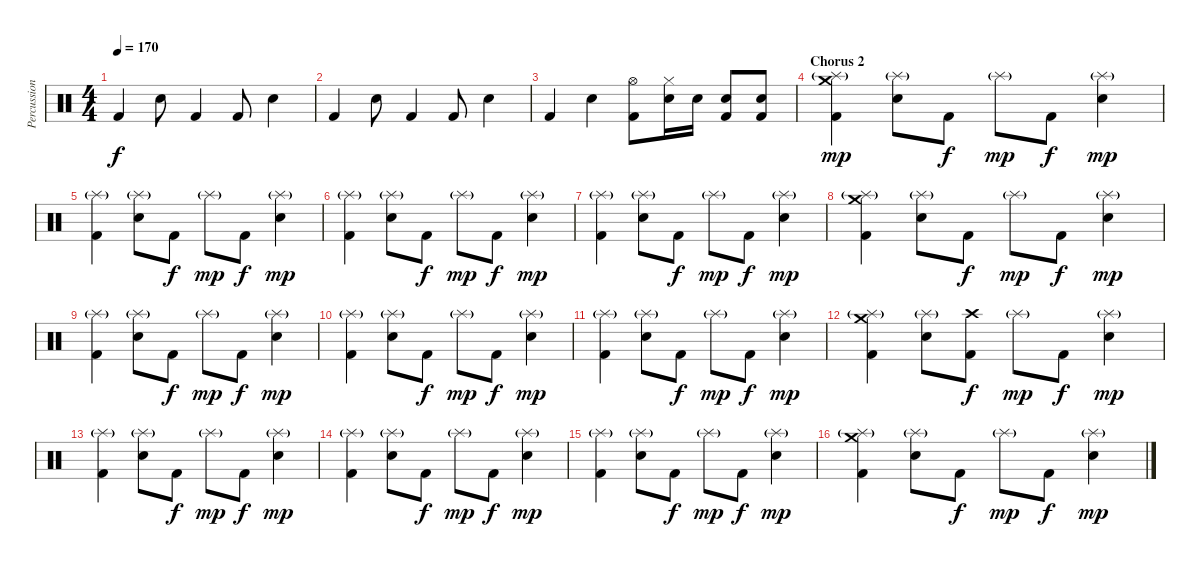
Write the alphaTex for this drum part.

\track ("Percussions" "Percussion") {instrument percussion}
\staff {score}
\articulation defaults
\ts (4 4)
\tempo 170
\clef neutral
\ks c "Kick (hit) 2".4{dy f} "Electric Snare (hit)".8 "Kick (hit) 2".4 "Kick (hit) 2".8 "Electric Snare (hit)".4
|
"Kick (hit) 2".4 "Electric Snare (hit)".8 "Kick (hit) 2".4 "Kick (hit) 2".8 "Electric Snare (hit)".4 |
"Kick (hit) 2".4 "Electric Snare (hit)".4 ("Hi-Hat (open)" "Kick (hit) 2").8 ("Hi-Hat (closed)" "Electric Snare (hit)").16 "Electric Snare (hit)".16 ("Kick (hit) 2" "Electric Snare (hit)").8 ("Kick (hit) 2" "Electric Snare (hit)").8 |
\section ("" "Chorus 2")
("Crash medium (hit)" "Splash (hit)"{g} "Kick (hit) 2").4{dy mp} ("Splash (hit)"{g} "Electric Snare (hit)").8 "Kick (hit) 2".8{dy f} "Splash (hit)"{g}.8{dy mp} "Kick (hit) 2".8{dy f} ("Splash (hit)"{g} "Electric Snare (hit)").4{dy mp} |
("Splash (hit)"{g} "Kick (hit) 2").4 ("Splash (hit)"{g} "Electric Snare (hit)").8 "Kick (hit) 2".8{dy f} "Splash (hit)"{g}.8{dy mp} "Kick (hit) 2".8{dy f} ("Splash (hit)"{g} "Electric Snare (hit)").4{dy mp} |
("Splash (hit)"{g} "Kick (hit) 2").4 ("Splash (hit)"{g} "Electric Snare (hit)").8 "Kick (hit) 2".8{dy f} "Splash (hit)"{g}.8{dy mp} "Kick (hit) 2".8{dy f} ("Splash (hit)"{g} "Electric Snare (hit)").4{dy mp} |
("Splash (hit)"{g} "Kick (hit) 2").4 ("Splash (hit)"{g} "Electric Snare (hit)").8 "Kick (hit) 2".8{dy f} "Splash (hit)"{g}.8{dy mp} "Kick (hit) 2".8{dy f} ("Splash (hit)"{g} "Electric Snare (hit)").4{dy mp} |
("Crash medium (hit)" "Splash (hit)"{g} "Kick (hit) 2").4 ("Splash (hit)"{g} "Electric Snare (hit)").8 "Kick (hit) 2".8{dy f} "Splash (hit)"{g}.8{dy mp} "Kick (hit) 2".8{dy f} ("Splash (hit)"{g} "Electric Snare (hit)").4{dy mp} |
("Splash (hit)"{g} "Kick (hit) 2").4 ("Splash (hit)"{g} "Electric Snare (hit)").8 "Kick (hit) 2".8{dy f} "Splash (hit)"{g}.8{dy mp} "Kick (hit) 2".8{dy f} ("Splash (hit)"{g} "Electric Snare (hit)").4{dy mp} |
("Splash (hit)"{g} "Kick (hit) 2").4 ("Splash (hit)"{g} "Electric Snare (hit)").8 "Kick (hit) 2".8{dy f} "Splash (hit)"{g}.8{dy mp} "Kick (hit) 2".8{dy f} ("Splash (hit)"{g} "Electric Snare (hit)").4{dy mp} |
("Splash (hit)"{g} "Kick (hit) 2").4 ("Splash (hit)"{g} "Electric Snare (hit)").8 "Kick (hit) 2".8{dy f} "Splash (hit)"{g}.8{dy mp} "Kick (hit) 2".8{dy f} ("Splash (hit)"{g} "Electric Snare (hit)").4{dy mp} |
("Crash medium (hit)" "Splash (hit)"{g} "Kick (hit) 2").4 ("Splash (hit)"{g} "Electric Snare (hit)").8 ("Crash high (hit)" "Kick (hit) 2").8{dy f} "Splash (hit)"{g}.8{dy mp} "Kick (hit) 2".8{dy f} ("Splash (hit)"{g} "Electric Snare (hit)").4{dy mp} |
("Splash (hit)"{g} "Kick (hit) 2").4 ("Splash (hit)"{g} "Electric Snare (hit)").8 "Kick (hit) 2".8{dy f} "Splash (hit)"{g}.8{dy mp} "Kick (hit) 2".8{dy f} ("Splash (hit)"{g} "Electric Snare (hit)").4{dy mp} |
("Splash (hit)"{g} "Kick (hit) 2").4 ("Splash (hit)"{g} "Electric Snare (hit)").8 "Kick (hit) 2".8{dy f} "Splash (hit)"{g}.8{dy mp} "Kick (hit) 2".8{dy f} ("Splash (hit)"{g} "Electric Snare (hit)").4{dy mp} |
("Splash (hit)"{g} "Kick (hit) 2").4 ("Splash (hit)"{g} "Electric Snare (hit)").8 "Kick (hit) 2".8{dy f} "Splash (hit)"{g}.8{dy mp} "Kick (hit) 2".8{dy f} ("Splash (hit)"{g} "Electric Snare (hit)").4{dy mp} |
("Crash medium (hit)" "Splash (hit)"{g} "Kick (hit) 2").4 ("Splash (hit)"{g} "Electric Snare (hit)").8 "Kick (hit) 2".8{dy f} "Splash (hit)"{g}.8{dy mp} "Kick (hit) 2".8{dy f} ("Splash (hit)"{g} "Electric Snare (hit)").4{dy mp}
